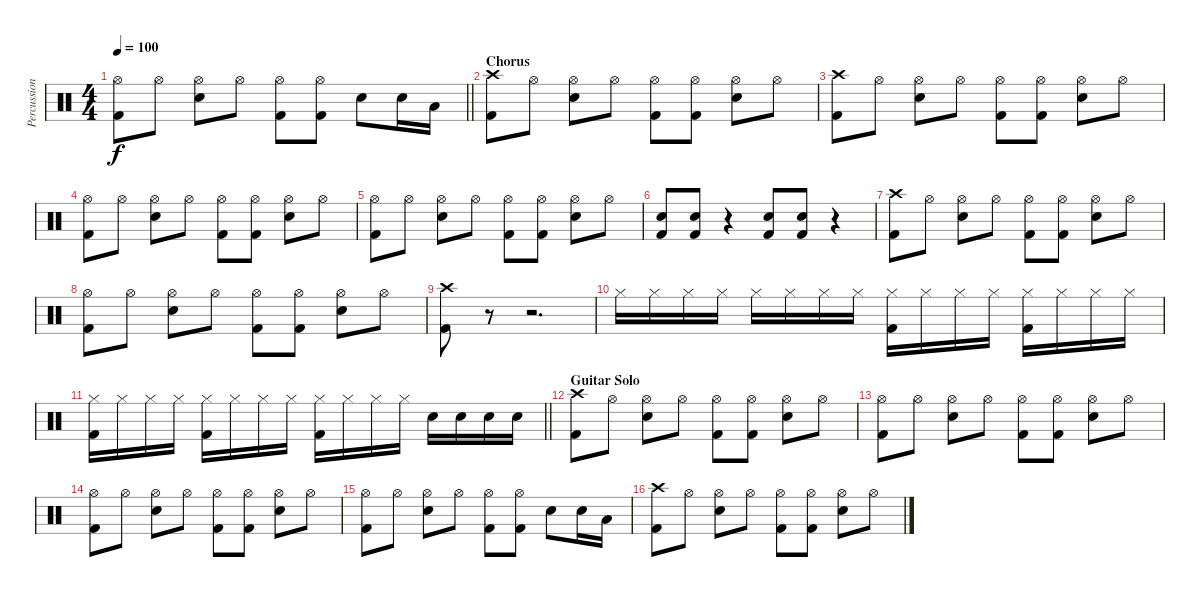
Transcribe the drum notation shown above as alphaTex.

\track ("Percussion" "Percussion") {instrument percussion}
\staff {score}
\articulation defaults
\ts (4 4)
\tempo 100
\clef neutral
\barLineRight lightlight
\ks c
("Hi-Hat (open)" "Kick (hit) 2").8{dy f} "Hi-Hat (open)".8 ("Hi-Hat (open)" "Electric Snare (hit)").8 "Hi-Hat (open)".8 ("Hi-Hat (open)" "Kick (hit) 2").8 ("Hi-Hat (open)" "Kick (hit) 2").8 "Electric Snare (hit)".8 "Electric Snare (hit)".16 "Low Tom (hit)".16 |
\section ("" "Chorus")
("Crash high (hit)" "Kick (hit) 2").8 "Hi-Hat (open)".8 ("Hi-Hat (open)" "Electric Snare (hit)").8 "Hi-Hat (open)".8 ("Hi-Hat (open)" "Kick (hit) 2").8 ("Hi-Hat (open)" "Kick (hit) 2").8 ("Hi-Hat (open)" "Electric Snare (hit)").8 "Hi-Hat (open)".8 |
("Crash high (hit)" "Kick (hit) 2").8 "Hi-Hat (open)".8 ("Hi-Hat (open)" "Electric Snare (hit)").8 "Hi-Hat (open)".8 ("Hi-Hat (open)" "Kick (hit) 2").8 ("Hi-Hat (open)" "Kick (hit) 2").8 ("Hi-Hat (open)" "Electric Snare (hit)").8 "Hi-Hat (open)".8 |
("Hi-Hat (open)" "Kick (hit) 2").8 "Hi-Hat (open)".8 ("Hi-Hat (open)" "Electric Snare (hit)").8 "Hi-Hat (open)".8 ("Hi-Hat (open)" "Kick (hit) 2").8 ("Hi-Hat (open)" "Kick (hit) 2").8 ("Hi-Hat (open)" "Electric Snare (hit)").8 "Hi-Hat (open)".8 |
("Hi-Hat (open)" "Kick (hit) 2").8 "Hi-Hat (open)".8 ("Hi-Hat (open)" "Electric Snare (hit)").8 "Hi-Hat (open)".8 ("Hi-Hat (open)" "Kick (hit) 2").8 ("Hi-Hat (open)" "Kick (hit) 2").8 ("Hi-Hat (open)" "Electric Snare (hit)").8 "Hi-Hat (open)".8 |
("Electric Snare (hit)" "Kick (hit) 2").8 ("Electric Snare (hit)" "Kick (hit) 2").8 r.4 ("Electric Snare (hit)" "Kick (hit) 2").8 ("Electric Snare (hit)" "Kick (hit) 2").8 r.4 |
("Crash high (hit)" "Kick (hit) 2").8 "Hi-Hat (open)".8 ("Hi-Hat (open)" "Electric Snare (hit)").8 "Hi-Hat (open)".8 ("Hi-Hat (open)" "Kick (hit) 2").8 ("Hi-Hat (open)" "Kick (hit) 2").8 ("Hi-Hat (open)" "Electric Snare (hit)").8 "Hi-Hat (open)".8 |
("Hi-Hat (open)" "Kick (hit) 2").8 "Hi-Hat (open)".8 ("Hi-Hat (open)" "Electric Snare (hit)").8 "Hi-Hat (open)".8 ("Hi-Hat (open)" "Kick (hit) 2").8 ("Hi-Hat (open)" "Kick (hit) 2").8 ("Hi-Hat (open)" "Electric Snare (hit)").8 "Hi-Hat (open)".8 |
("Crash high (hit)" "Kick (hit) 2").8 r.8 r.2{d} |
"Hi-Hat (closed)".16 "Hi-Hat (closed)".16 "Hi-Hat (closed)".16 "Hi-Hat (closed)".16 "Hi-Hat (closed)".16 "Hi-Hat (closed)".16 "Hi-Hat (closed)".16 "Hi-Hat (closed)".16 ("Hi-Hat (closed)" "Kick (hit) 2").16 "Hi-Hat (closed)".16 "Hi-Hat (closed)".16 "Hi-Hat (closed)".16 ("Hi-Hat (closed)" "Kick (hit) 2").16 "Hi-Hat (closed)".16 "Hi-Hat (closed)".16 "Hi-Hat (closed)".16 |
\barLineRight lightlight
("Hi-Hat (closed)" "Kick (hit) 2").16 "Hi-Hat (closed)".16 "Hi-Hat (closed)".16 "Hi-Hat (closed)".16 ("Hi-Hat (closed)" "Kick (hit) 2").16 "Hi-Hat (closed)".16 "Hi-Hat (closed)".16 "Hi-Hat (closed)".16 ("Hi-Hat (closed)" "Kick (hit) 2").16 "Hi-Hat (closed)".16 "Hi-Hat (closed)".16 "Hi-Hat (closed)".16 "Electric Snare (hit)".16 "Electric Snare (hit)".16 "Electric Snare (hit)".16 "Electric Snare (hit)".16 |
\section ("" "Guitar Solo")
("Crash high (hit)" "Kick (hit) 2").8 "Hi-Hat (open)".8 ("Hi-Hat (open)" "Electric Snare (hit)").8 "Hi-Hat (open)".8 ("Hi-Hat (open)" "Kick (hit) 2").8 ("Hi-Hat (open)" "Kick (hit) 2").8 ("Hi-Hat (open)" "Electric Snare (hit)").8 "Hi-Hat (open)".8 |
("Hi-Hat (open)" "Kick (hit) 2").8 "Hi-Hat (open)".8 ("Hi-Hat (open)" "Electric Snare (hit)").8 "Hi-Hat (open)".8 ("Hi-Hat (open)" "Kick (hit) 2").8 ("Hi-Hat (open)" "Kick (hit) 2").8 ("Hi-Hat (open)" "Electric Snare (hit)").8 "Hi-Hat (open)".8 |
("Hi-Hat (open)" "Kick (hit) 2").8 "Hi-Hat (open)".8 ("Hi-Hat (open)" "Electric Snare (hit)").8 "Hi-Hat (open)".8 ("Hi-Hat (open)" "Kick (hit) 2").8 ("Hi-Hat (open)" "Kick (hit) 2").8 ("Hi-Hat (open)" "Electric Snare (hit)").8 "Hi-Hat (open)".8 |
("Hi-Hat (open)" "Kick (hit) 2").8 "Hi-Hat (open)".8 ("Hi-Hat (open)" "Electric Snare (hit)").8 "Hi-Hat (open)".8 ("Hi-Hat (open)" "Kick (hit) 2").8 ("Hi-Hat (open)" "Kick (hit) 2").8 "Electric Snare (hit)".8 "Electric Snare (hit)".16 "Low Tom (hit)".16 |
("Crash high (hit)" "Kick (hit) 2").8 "Hi-Hat (open)".8 ("Hi-Hat (open)" "Electric Snare (hit)").8 "Hi-Hat (open)".8 ("Hi-Hat (open)" "Kick (hit) 2").8 ("Hi-Hat (open)" "Kick (hit) 2").8 ("Hi-Hat (open)" "Electric Snare (hit)").8 "Hi-Hat (open)".8
